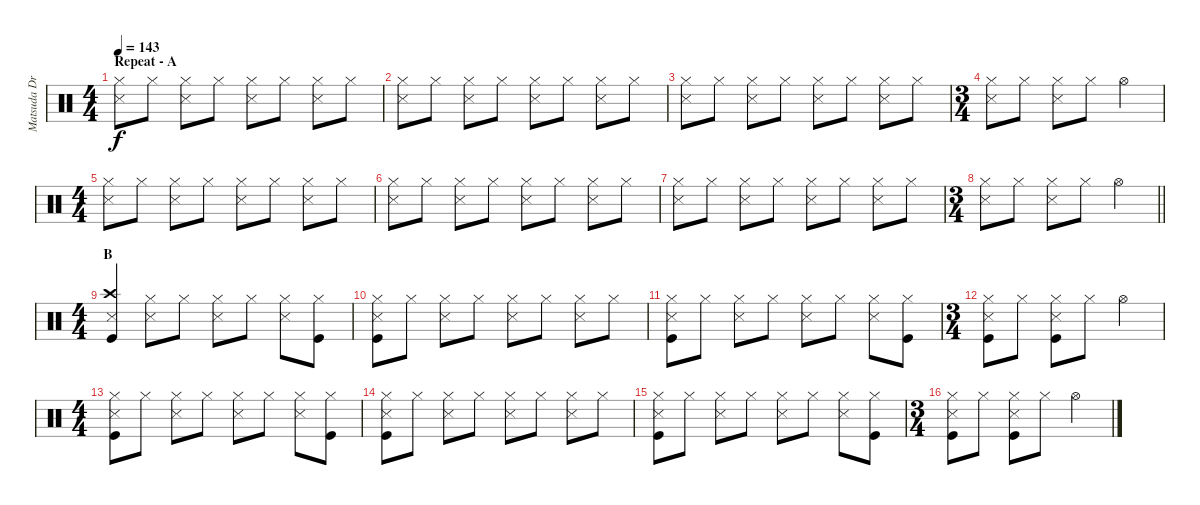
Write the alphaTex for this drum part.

\track ("Matsuda Drums" "Matsuda Dr") {instrument percussion}
\staff {score}
\articulation defaults
\ts (4 4)
\section ("" "Repeat - A")
\tempo 143
\clef neutral
\ks c
("Hi-Hat (closed)" "Snare (side stick) 3").8{dy f} "Hi-Hat (closed)".8 ("Hi-Hat (closed)" "Snare (side stick) 3").8 "Hi-Hat (closed)".8 ("Hi-Hat (closed)" "Snare (side stick) 3").8 "Hi-Hat (closed)".8 ("Hi-Hat (closed)" "Snare (side stick) 3").8 "Hi-Hat (closed)".8 |
("Hi-Hat (closed)" "Snare (side stick) 3").8 "Hi-Hat (closed)".8 ("Hi-Hat (closed)" "Snare (side stick) 3").8 "Hi-Hat (closed)".8 ("Hi-Hat (closed)" "Snare (side stick) 3").8 "Hi-Hat (closed)".8 ("Hi-Hat (closed)" "Snare (side stick) 3").8 "Hi-Hat (closed)".8 |
("Hi-Hat (closed)" "Snare (side stick) 3").8 "Hi-Hat (closed)".8 ("Hi-Hat (closed)" "Snare (side stick) 3").8 "Hi-Hat (closed)".8 ("Hi-Hat (closed)" "Snare (side stick) 3").8 "Hi-Hat (closed)".8 ("Hi-Hat (closed)" "Snare (side stick) 3").8 "Hi-Hat (closed)".8 |
\ts (3 4)
("Hi-Hat (closed)" "Snare (side stick) 3").8 "Hi-Hat (closed)".8 ("Hi-Hat (closed)" "Snare (side stick) 3").8 "Hi-Hat (closed)".8 "Hi-Hat (open)".4 |
\ts (4 4)
("Hi-Hat (closed)" "Snare (side stick) 3").8 "Hi-Hat (closed)".8 ("Hi-Hat (closed)" "Snare (side stick) 3").8 "Hi-Hat (closed)".8 ("Hi-Hat (closed)" "Snare (side stick) 3").8 "Hi-Hat (closed)".8 ("Hi-Hat (closed)" "Snare (side stick) 3").8 "Hi-Hat (closed)".8 |
("Hi-Hat (closed)" "Snare (side stick) 3").8 "Hi-Hat (closed)".8 ("Hi-Hat (closed)" "Snare (side stick) 3").8 "Hi-Hat (closed)".8 ("Hi-Hat (closed)" "Snare (side stick) 3").8 "Hi-Hat (closed)".8 ("Hi-Hat (closed)" "Snare (side stick) 3").8 "Hi-Hat (closed)".8 |
("Hi-Hat (closed)" "Snare (side stick) 3").8 "Hi-Hat (closed)".8 ("Hi-Hat (closed)" "Snare (side stick) 3").8 "Hi-Hat (closed)".8 ("Hi-Hat (closed)" "Snare (side stick) 3").8 "Hi-Hat (closed)".8 ("Hi-Hat (closed)" "Snare (side stick) 3").8 "Hi-Hat (closed)".8 |
\ts (3 4)
\barLineRight lightlight
("Hi-Hat (closed)" "Snare (side stick) 3").8 "Hi-Hat (closed)".8 ("Hi-Hat (closed)" "Snare (side stick) 3").8 "Hi-Hat (closed)".8 "Hi-Hat (open)".4 |
\ts (4 4)
\section ("" "B")
("Crash high (hit)" "Snare (side stick) 3" "Kick (hit)").4 ("Hi-Hat (closed)" "Snare (side stick) 3").8 "Hi-Hat (closed)".8 ("Hi-Hat (closed)" "Snare (side stick) 3").8 "Hi-Hat (closed)".8 ("Hi-Hat (closed)" "Snare (side stick) 3").8 ("Hi-Hat (closed)" "Kick (hit)").8 |
("Hi-Hat (closed)" "Snare (side stick) 3" "Kick (hit)").8 "Hi-Hat (closed)".8 ("Hi-Hat (closed)" "Snare (side stick) 3").8 "Hi-Hat (closed)".8 ("Hi-Hat (closed)" "Snare (side stick) 3").8 "Hi-Hat (closed)".8 ("Hi-Hat (closed)" "Snare (side stick) 3").8 "Hi-Hat (closed)".8 |
("Hi-Hat (closed)" "Snare (side stick) 3" "Kick (hit)").8 "Hi-Hat (closed)".8 ("Hi-Hat (closed)" "Snare (side stick) 3").8 "Hi-Hat (closed)".8 ("Hi-Hat (closed)" "Snare (side stick) 3").8 "Hi-Hat (closed)".8 ("Hi-Hat (closed)" "Snare (side stick) 3").8 ("Hi-Hat (closed)" "Kick (hit)").8 |
\ts (3 4)
("Hi-Hat (closed)" "Snare (side stick) 3" "Kick (hit)").8 "Hi-Hat (closed)".8 ("Hi-Hat (closed)" "Snare (side stick) 3" "Kick (hit)").8 "Hi-Hat (closed)".8 "Hi-Hat (open)".4 |
\ts (4 4)
("Hi-Hat (closed)" "Snare (side stick) 3" "Kick (hit)").8 "Hi-Hat (closed)".8 ("Hi-Hat (closed)" "Snare (side stick) 3").8 "Hi-Hat (closed)".8 ("Hi-Hat (closed)" "Snare (side stick) 3").8 "Hi-Hat (closed)".8 ("Hi-Hat (closed)" "Snare (side stick) 3").8 ("Hi-Hat (closed)" "Kick (hit)").8 |
("Hi-Hat (closed)" "Snare (side stick) 3" "Kick (hit)").8 "Hi-Hat (closed)".8 ("Hi-Hat (closed)" "Snare (side stick) 3").8 "Hi-Hat (closed)".8 ("Hi-Hat (closed)" "Snare (side stick) 3").8 "Hi-Hat (closed)".8 ("Hi-Hat (closed)" "Snare (side stick) 3").8 "Hi-Hat (closed)".8 |
("Hi-Hat (closed)" "Snare (side stick) 3" "Kick (hit)").8 "Hi-Hat (closed)".8 ("Hi-Hat (closed)" "Snare (side stick) 3").8 "Hi-Hat (closed)".8 ("Hi-Hat (closed)" "Snare (side stick) 3").8 "Hi-Hat (closed)".8 ("Hi-Hat (closed)" "Snare (side stick) 3").8 ("Hi-Hat (closed)" "Kick (hit)").8 |
\ts (3 4)
("Hi-Hat (closed)" "Snare (side stick) 3" "Kick (hit)").8 "Hi-Hat (closed)".8 ("Hi-Hat (closed)" "Snare (side stick) 3" "Kick (hit)").8 "Hi-Hat (closed)".8 "Hi-Hat (open)".4
